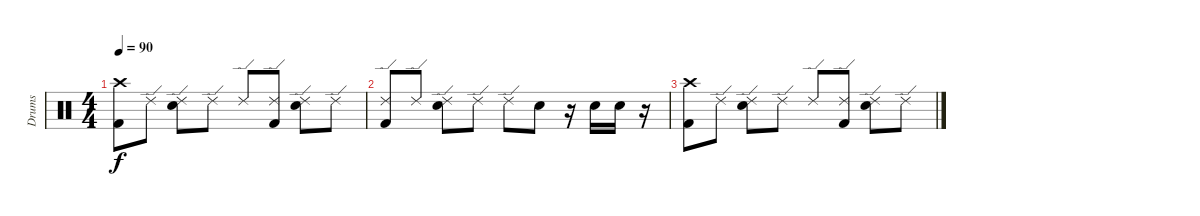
\track ("Drums" "Drums") {instrument percussion}
\staff {score}
\articulation defaults
\ts (4 4)
\tempo 90
\clef neutral
\ks c
("Crash high (hit)" "Kick (hit) 2").8{dy f} "Ride (edge) 2".8 ("Ride (edge) 2" "Electric Snare (hit)").8 "Ride (edge) 2".8 "Ride (edge) 2".8 ("Ride (edge) 2" "Kick (hit) 2").8 ("Ride (edge) 2" "Electric Snare (hit)").8 "Ride (edge) 2".8 |
("Ride (edge) 2" "Kick (hit) 2").8 "Ride (edge) 2".8 ("Ride (edge) 2" "Electric Snare (hit)").8 "Ride (edge) 2".8 "Ride (edge) 2".8 "Electric Snare (hit)".8 r.16 "Electric Snare (hit)".16 "Electric Snare (hit)".16 r.16 |
("Crash high (hit)" "Kick (hit) 2").8 "Ride (edge) 2".8 ("Ride (edge) 2" "Electric Snare (hit)").8 "Ride (edge) 2".8 "Ride (edge) 2".8 ("Ride (edge) 2" "Kick (hit) 2").8 ("Ride (edge) 2" "Electric Snare (hit)").8 "Ride (edge) 2".8
